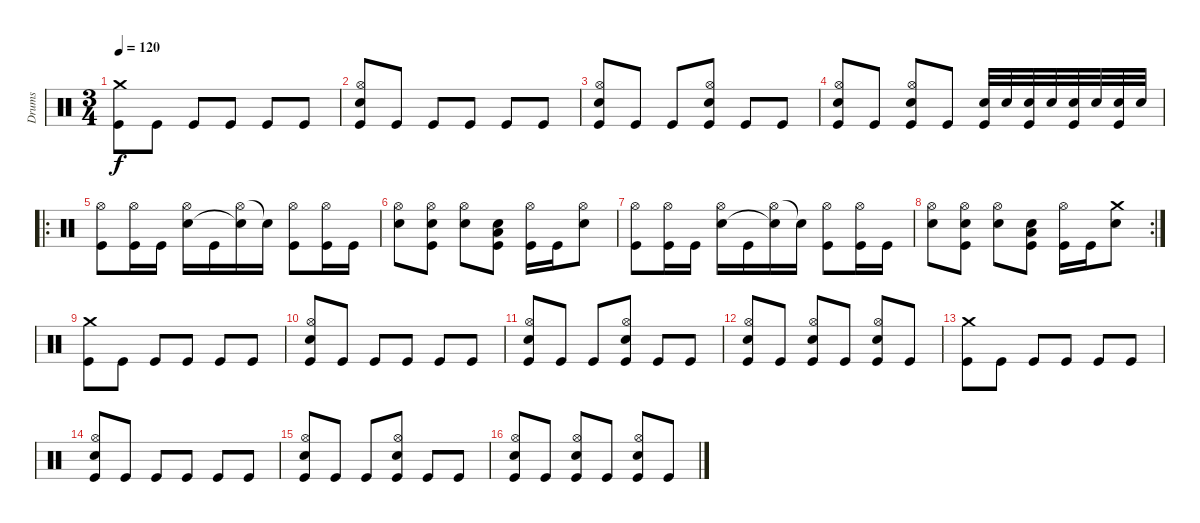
\track ("Drums" "Drums") {instrument percussion}
\staff {score}
\articulation defaults
\ts (3 4)
\tempo 120
\clef neutral
\ks c
("Crash medium (hit)" "Kick (hit)").8{dy f} "Kick (hit)".8 "Kick (hit)".8 "Kick (hit)".8 "Kick (hit)".8 "Kick (hit)".8 |
("Hi-Hat (open)" "Snare (hit) 2" "Kick (hit)").8 "Kick (hit)".8 "Kick (hit)".8 "Kick (hit)".8 "Kick (hit)".8 "Kick (hit)".8 |
("Hi-Hat (open)" "Snare (hit) 2" "Kick (hit)").8 "Kick (hit)".8 "Kick (hit)".8 ("Hi-Hat (open)" "Snare (hit) 2" "Kick (hit)").8 "Kick (hit)".8 "Kick (hit)".8 |
("Hi-Hat (open)" "Snare (hit) 2" "Kick (hit)").8 "Kick (hit)".8 ("Hi-Hat (open)" "Snare (hit) 2" "Kick (hit)").8 "Kick (hit)".8 ("Snare (hit) 2" "Kick (hit)").32 "Snare (hit) 2".32 ("Snare (hit) 2" "Kick (hit)").32 "Snare (hit) 2".32 ("Snare (hit) 2" "Kick (hit)").32 "Snare (hit) 2".32 ("Snare (hit) 2" "Kick (hit)").32 "Snare (hit) 2".32 |
\ro
("Hi-Hat (open)" "Kick (hit)").8{volume 16} ("Hi-Hat (open)" "Kick (hit)").16 "Kick (hit)".16 ("Hi-Hat (open)" "Snare (hit) 2").16 "Kick (hit)".16 ("Hi-Hat (open)" "Snare (hit)"{t}).16 "Snare (hit)"{t}.16 ("Hi-Hat (open)" "Kick (hit)").8 ("Hi-Hat (open)" "Kick (hit)").16 "Kick (hit)".16 |
("Hi-Hat (open)" "Snare (hit) 2").8 ("Hi-Hat (open)" "Snare (hit) 2" "Kick (hit)").8 ("Hi-Hat (open)" "Snare (hit) 2").8 ("Low Floor Tom (hit)" "Snare (hit) 2" "Kick (hit)").8 ("Hi-Hat (open)" "Kick (hit)").16 "Kick (hit)".16 ("Hi-Hat (open)" "Snare (hit) 2").8 |
("Hi-Hat (open)" "Kick (hit)").8 ("Hi-Hat (open)" "Kick (hit)").16 "Kick (hit)".16 ("Hi-Hat (open)" "Snare (hit) 2").16 "Kick (hit)".16 ("Hi-Hat (open)" "Snare (hit)"{t}).16 "Snare (hit)"{t}.16 ("Hi-Hat (open)" "Kick (hit)").8 ("Hi-Hat (open)" "Kick (hit)").16 "Kick (hit)".16 |
\rc 2
("Hi-Hat (open)" "Snare (hit) 2").8 ("Hi-Hat (open)" "Snare (hit) 2" "Kick (hit)").8 ("Hi-Hat (open)" "Snare (hit) 2").8 ("Low Floor Tom (hit)" "Snare (hit) 2" "Kick (hit)").8 ("Hi-Hat (open)" "Kick (hit)").16 "Kick (hit)".16 ("Crash medium (hit)" "Snare (hit) 2").8 |
("Crash medium (hit)" "Kick (hit)").8 "Kick (hit)".8 "Kick (hit)".8 "Kick (hit)".8 "Kick (hit)".8 "Kick (hit)".8 |
("Hi-Hat (open)" "Snare (hit) 2" "Kick (hit)").8 "Kick (hit)".8 "Kick (hit)".8 "Kick (hit)".8 "Kick (hit)".8 "Kick (hit)".8 |
("Hi-Hat (open)" "Snare (hit) 2" "Kick (hit)").8 "Kick (hit)".8 "Kick (hit)".8 ("Hi-Hat (open)" "Snare (hit) 2" "Kick (hit)").8 "Kick (hit)".8 "Kick (hit)".8 |
("Hi-Hat (open)" "Snare (hit) 2" "Kick (hit)").8 "Kick (hit)".8 ("Hi-Hat (open)" "Snare (hit) 2" "Kick (hit)").8 "Kick (hit)".8 ("Hi-Hat (open)" "Snare (hit) 2" "Kick (hit)").8 "Kick (hit)".8 |
("Crash medium (hit)" "Kick (hit)").8 "Kick (hit)".8 "Kick (hit)".8 "Kick (hit)".8 "Kick (hit)".8 "Kick (hit)".8 |
("Hi-Hat (open)" "Snare (hit) 2" "Kick (hit)").8 "Kick (hit)".8 "Kick (hit)".8 "Kick (hit)".8 "Kick (hit)".8 "Kick (hit)".8 |
("Hi-Hat (open)" "Snare (hit) 2" "Kick (hit)").8 "Kick (hit)".8 "Kick (hit)".8 ("Hi-Hat (open)" "Snare (hit) 2" "Kick (hit)").8 "Kick (hit)".8 "Kick (hit)".8 |
("Hi-Hat (open)" "Snare (hit) 2" "Kick (hit)").8 "Kick (hit)".8 ("Hi-Hat (open)" "Snare (hit) 2" "Kick (hit)").8 "Kick (hit)".8 ("Hi-Hat (open)" "Snare (hit) 2" "Kick (hit)").8 "Kick (hit)".8
